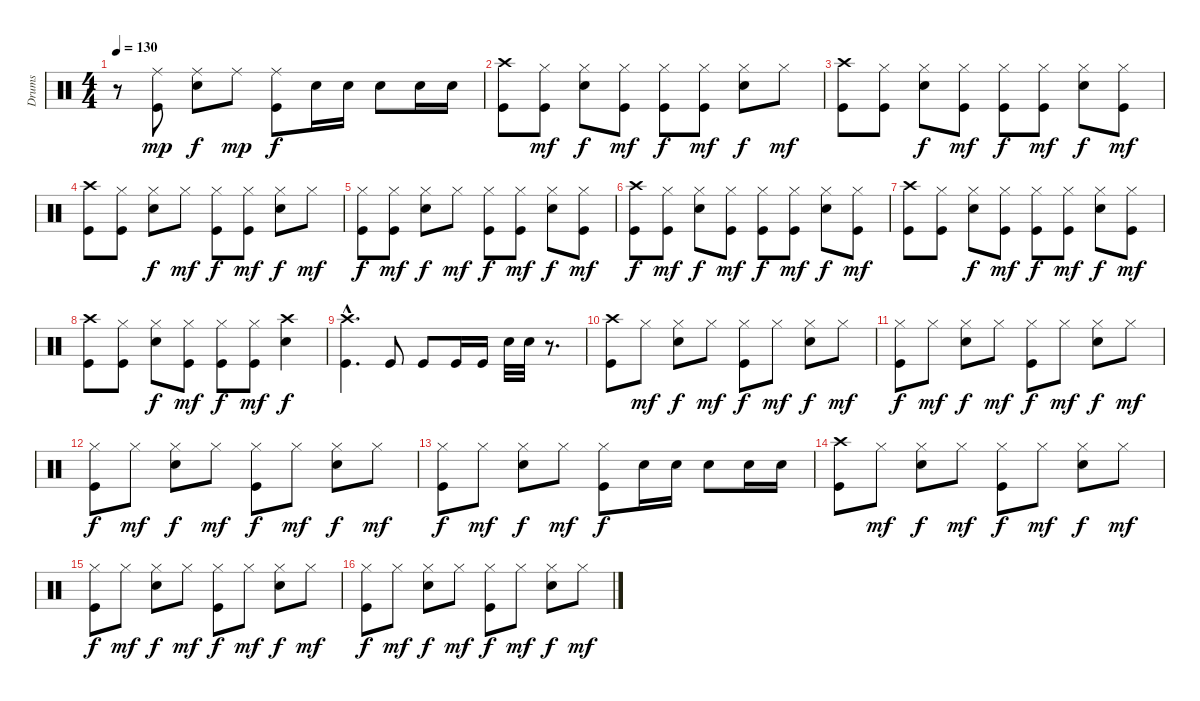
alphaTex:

\track ("Drums" "Drums") {instrument percussion}
\staff {score}
\articulation defaults
\ts (4 4)
\tempo 130
\clef neutral
\ks c
r.8{dy f} ("Ride (middle)" "Kick (hit)").8{dy mp} ("Ride (middle)" "Snare (hit) 2").8{dy f} "Ride (middle)".8{dy mp} ("Ride (middle)" "Kick (hit)").8{dy f} "Snare (hit) 2".16 "Snare (hit) 2".16 "Snare (hit) 2".8 "Snare (hit) 2".16 "Snare (hit) 2".16 |
("Kick (hit)" "Crash high (hit)").8 ("Hi-Hat (closed)" "Kick (hit)").8{dy mf} ("Hi-Hat (closed)" "Snare (hit) 2").8{dy f} ("Hi-Hat (closed)" "Kick (hit)").8{dy mf} ("Hi-Hat (closed)" "Kick (hit)").8{dy f} ("Hi-Hat (closed)" "Kick (hit)").8{dy mf} ("Hi-Hat (closed)" "Snare (hit) 2").8{dy f} "Hi-Hat (closed)".8{dy mf} |
("Crash high (hit)" "Kick (hit)").8 ("Hi-Hat (closed)" "Kick (hit)").8 ("Hi-Hat (closed)" "Snare (hit) 2").8{dy f} ("Hi-Hat (closed)" "Kick (hit)").8{dy mf} ("Hi-Hat (closed)" "Kick (hit)").8{dy f} ("Hi-Hat (closed)" "Kick (hit)").8{dy mf} ("Hi-Hat (closed)" "Snare (hit) 2").8{dy f} ("Hi-Hat (closed)" "Kick (hit)").8{dy mf} |
("Crash high (hit)" "Kick (hit)").8 ("Hi-Hat (closed)" "Kick (hit)").8 ("Hi-Hat (closed)" "Snare (hit) 2").8{dy f} "Hi-Hat (closed)".8{dy mf} ("Hi-Hat (closed)" "Kick (hit)").8{dy f} ("Hi-Hat (closed)" "Kick (hit)").8{dy mf} ("Hi-Hat (closed)" "Snare (hit) 2").8{dy f} "Hi-Hat (closed)".8{dy mf} |
("Hi-Hat (closed)" "Kick (hit)").8{dy f} ("Hi-Hat (closed)" "Kick (hit)").8{dy mf} ("Hi-Hat (closed)" "Snare (hit) 2").8{dy f} "Hi-Hat (closed)".8{dy mf} ("Hi-Hat (closed)" "Kick (hit)").8{dy f} ("Hi-Hat (closed)" "Kick (hit)").8{dy mf} ("Hi-Hat (closed)" "Snare (hit) 2").8{dy f} ("Hi-Hat (closed)" "Kick (hit)").8{dy mf} |
("Kick (hit)" "Crash high (hit)").8{dy f} ("Hi-Hat (closed)" "Kick (hit)").8{dy mf} ("Hi-Hat (closed)" "Snare (hit) 2").8{dy f} ("Hi-Hat (closed)" "Kick (hit)").8{dy mf} ("Hi-Hat (closed)" "Kick (hit)").8{dy f} ("Hi-Hat (closed)" "Kick (hit)").8{dy mf} ("Hi-Hat (closed)" "Snare (hit) 2").8{dy f} ("Hi-Hat (closed)" "Kick (hit)").8{dy mf} |
("Crash high (hit)" "Kick (hit)").8 ("Hi-Hat (closed)" "Kick (hit)").8 ("Hi-Hat (closed)" "Snare (hit) 2").8{dy f} ("Hi-Hat (closed)" "Kick (hit)").8{dy mf} ("Hi-Hat (closed)" "Kick (hit)").8{dy f} ("Hi-Hat (closed)" "Kick (hit)").8{dy mf} ("Hi-Hat (closed)" "Snare (hit) 2").8{dy f} ("Hi-Hat (closed)" "Kick (hit)").8{dy mf} |
("Crash high (hit)" "Kick (hit)").8 ("Hi-Hat (closed)" "Kick (hit)").8 ("Hi-Hat (closed)" "Snare (hit) 2").8{dy f} ("Hi-Hat (closed)" "Kick (hit)").8{dy mf} ("Hi-Hat (closed)" "Kick (hit)").8{dy f} ("Hi-Hat (closed)" "Kick (hit)").8{dy mf} ("Crash high (hit)" "Snare (hit) 2").4{dy f} |
("Kick (hit)"{hac} "Crash high (hit)"{hac}).4{d} "Kick (hit)".8 "Kick (hit)".8 "Kick (hit)".16 "Kick (hit)".16 "Snare (hit) 2".32 "Snare (hit) 2".32 r.8{d} |
("Kick (hit)" "Crash high (hit)").8 "Hi-Hat (closed)".8{dy mf} ("Hi-Hat (closed)" "Snare (hit) 2").8{dy f} "Hi-Hat (closed)".8{dy mf} ("Hi-Hat (closed)" "Kick (hit)").8{dy f} "Hi-Hat (closed)".8{dy mf} ("Hi-Hat (closed)" "Snare (hit) 2").8{dy f} "Hi-Hat (closed)".8{dy mf} |
("Hi-Hat (closed)" "Kick (hit)").8{dy f} "Hi-Hat (closed)".8{dy mf} ("Hi-Hat (closed)" "Snare (hit) 2").8{dy f} "Hi-Hat (closed)".8{dy mf} ("Hi-Hat (closed)" "Kick (hit)").8{dy f} "Hi-Hat (closed)".8{dy mf} ("Hi-Hat (closed)" "Snare (hit) 2").8{dy f} "Hi-Hat (closed)".8{dy mf} |
("Hi-Hat (closed)" "Kick (hit)").8{dy f} "Hi-Hat (closed)".8{dy mf} ("Hi-Hat (closed)" "Snare (hit) 2").8{dy f} "Hi-Hat (closed)".8{dy mf} ("Hi-Hat (closed)" "Kick (hit)").8{dy f} "Hi-Hat (closed)".8{dy mf} ("Hi-Hat (closed)" "Snare (hit) 2").8{dy f} "Hi-Hat (closed)".8{dy mf} |
("Hi-Hat (closed)" "Kick (hit)").8{dy f} "Hi-Hat (closed)".8{dy mf} ("Hi-Hat (closed)" "Snare (hit) 2").8{dy f} "Hi-Hat (closed)".8{dy mf} ("Hi-Hat (closed)" "Kick (hit)").8{dy f} "Snare (hit) 2".16 "Snare (hit) 2".16 "Snare (hit) 2".8 "Snare (hit) 2".16 "Snare (hit) 2".16 |
("Kick (hit)" "Crash high (hit)").8 "Hi-Hat (closed)".8{dy mf} ("Hi-Hat (closed)" "Snare (hit) 2").8{dy f} "Hi-Hat (closed)".8{dy mf} ("Hi-Hat (closed)" "Kick (hit)").8{dy f} "Hi-Hat (closed)".8{dy mf} ("Hi-Hat (closed)" "Snare (hit) 2").8{dy f} "Hi-Hat (closed)".8{dy mf} |
("Hi-Hat (closed)" "Kick (hit)").8{dy f} "Hi-Hat (closed)".8{dy mf} ("Hi-Hat (closed)" "Snare (hit) 2").8{dy f} "Hi-Hat (closed)".8{dy mf} ("Hi-Hat (closed)" "Kick (hit)").8{dy f} "Hi-Hat (closed)".8{dy mf} ("Hi-Hat (closed)" "Snare (hit) 2").8{dy f} "Hi-Hat (closed)".8{dy mf} |
("Hi-Hat (closed)" "Kick (hit)").8{dy f} "Hi-Hat (closed)".8{dy mf} ("Hi-Hat (closed)" "Snare (hit) 2").8{dy f} "Hi-Hat (closed)".8{dy mf} ("Hi-Hat (closed)" "Kick (hit)").8{dy f} "Hi-Hat (closed)".8{dy mf} ("Hi-Hat (closed)" "Snare (hit) 2").8{dy f} "Hi-Hat (closed)".8{dy mf}
